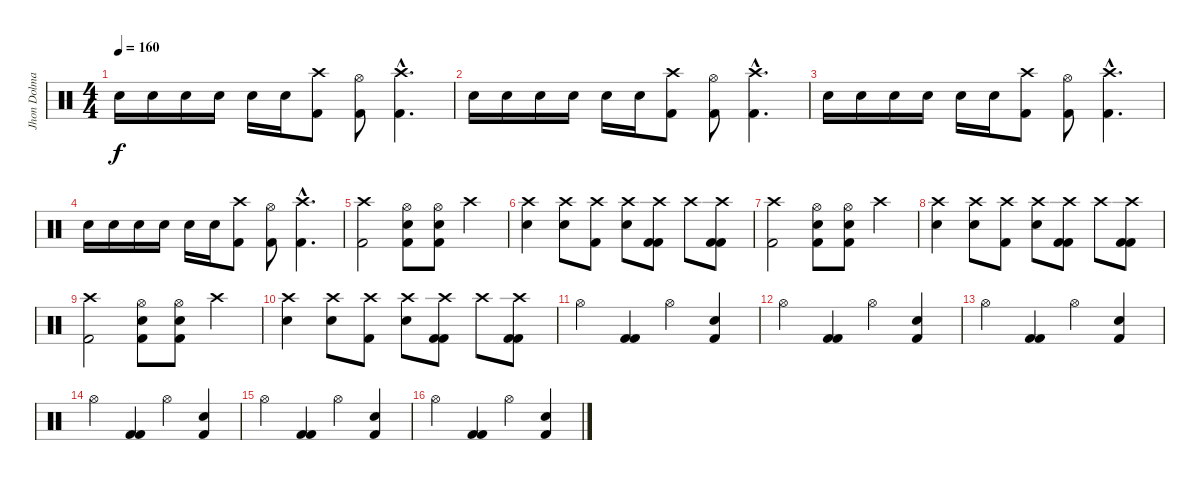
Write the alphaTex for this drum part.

\track ("Jhon Dolmayan(Drum)" "Jhon Dolma") {instrument percussion}
\staff {score}
\articulation defaults
\ts (4 4)
\tempo 160
\clef neutral
\ks c "Electric Snare (hit)".16{dy f} "Electric Snare (hit)".16 "Electric Snare (hit)".16 "Electric Snare (hit)".16 "Electric Snare (hit)".16 "Electric Snare (hit)".16
("Crash high (hit)" "Kick (hit) 2").8 ("Hi-Hat (open)" "Kick (hit) 2").8 ("Crash high (hit)"{hac} "Kick (hit) 2"{hac}).4{d} |
"Electric Snare (hit)".16 "Electric Snare (hit)".16 "Electric Snare (hit)".16 "Electric Snare (hit)".16 "Electric Snare (hit)".16 "Electric Snare (hit)".16 ("Crash high (hit)" "Kick (hit) 2").8 ("Hi-Hat (open)" "Kick (hit) 2").8 ("Crash high (hit)"{hac} "Kick (hit) 2"{hac}).4{d} |
"Electric Snare (hit)".16 "Electric Snare (hit)".16 "Electric Snare (hit)".16 "Electric Snare (hit)".16 "Electric Snare (hit)".16 "Electric Snare (hit)".16 ("Crash high (hit)" "Kick (hit) 2").8 ("Hi-Hat (open)" "Kick (hit) 2").8 ("Crash high (hit)"{hac} "Kick (hit) 2"{hac}).4{d} |
"Electric Snare (hit)".16 "Electric Snare (hit)".16 "Electric Snare (hit)".16 "Electric Snare (hit)".16 "Electric Snare (hit)".16 "Electric Snare (hit)".16 ("Crash high (hit)" "Kick (hit) 2").8 ("Hi-Hat (open)" "Kick (hit) 2").8 ("Crash high (hit)"{hac} "Kick (hit) 2"{hac}).4{d} |
("Crash high (hit)" "Kick (hit) 2").2 ("Electric Snare (hit)" "Kick (hit) 2" "Hi-Hat (open)").8 ("Electric Snare (hit)" "Kick (hit) 2" "Hi-Hat (open)").8 "Crash high (hit)".4 |
("Electric Snare (hit)" "Crash high (hit)").4 ("Electric Snare (hit)" "Crash high (hit)").8 ("Crash high (hit)" "Kick (hit) 2").8 ("Electric Snare (hit)" "Crash high (hit)").8 ("Crash high (hit)" "Kick (hit) 2" "Kick (hit) 2").8 "Crash high (hit)".8 ("Crash high (hit)" "Kick (hit) 2" "Kick (hit) 2").8 |
("Crash high (hit)" "Kick (hit) 2").2 ("Electric Snare (hit)" "Kick (hit) 2" "Hi-Hat (open)").8 ("Electric Snare (hit)" "Kick (hit) 2" "Hi-Hat (open)").8 "Crash high (hit)".4 |
("Electric Snare (hit)" "Crash high (hit)").4 ("Electric Snare (hit)" "Crash high (hit)").8 ("Crash high (hit)" "Kick (hit) 2").8 ("Electric Snare (hit)" "Crash high (hit)").8 ("Crash high (hit)" "Kick (hit) 2" "Kick (hit) 2").8 "Crash high (hit)".8 ("Crash high (hit)" "Kick (hit) 2" "Kick (hit) 2").8 |
("Crash high (hit)" "Kick (hit) 2").2 ("Electric Snare (hit)" "Kick (hit) 2" "Hi-Hat (open)").8 ("Electric Snare (hit)" "Kick (hit) 2" "Hi-Hat (open)").8 "Crash high (hit)".4 |
("Electric Snare (hit)" "Crash high (hit)").4 ("Electric Snare (hit)" "Crash high (hit)").8 ("Crash high (hit)" "Kick (hit) 2").8 ("Electric Snare (hit)" "Crash high (hit)").8 ("Crash high (hit)" "Kick (hit) 2" "Kick (hit) 2").8 "Crash high (hit)".8 ("Crash high (hit)" "Kick (hit) 2" "Kick (hit) 2").8 |
"Hi-Hat (open)".4 ("Kick (hit) 2" "Kick (hit) 2").4 "Hi-Hat (open)".4 ("Kick (hit) 2" "Electric Snare (hit)").4 |
"Hi-Hat (open)".4 ("Kick (hit) 2" "Kick (hit) 2").4 "Hi-Hat (open)".4 ("Kick (hit) 2" "Electric Snare (hit)").4 |
"Hi-Hat (open)".4 ("Kick (hit) 2" "Kick (hit) 2").4 "Hi-Hat (open)".4 ("Kick (hit) 2" "Electric Snare (hit)").4 |
"Hi-Hat (open)".4 ("Kick (hit) 2" "Kick (hit) 2").4 "Hi-Hat (open)".4 ("Kick (hit) 2" "Electric Snare (hit)").4 |
"Hi-Hat (open)".4 ("Kick (hit) 2" "Kick (hit) 2").4 "Hi-Hat (open)".4 ("Kick (hit) 2" "Electric Snare (hit)").4 |
"Hi-Hat (open)".4 ("Kick (hit) 2" "Kick (hit) 2").4 "Hi-Hat (open)".4 ("Kick (hit) 2" "Electric Snare (hit)").4
